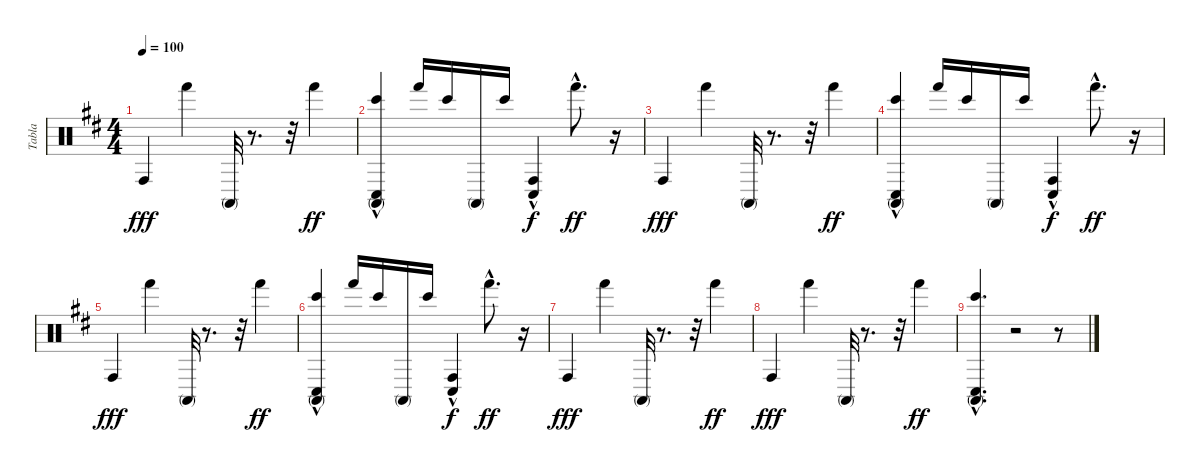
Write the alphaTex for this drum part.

\track ("Tabla" "Tabla") {instrument percussion}
\staff {score}
\articulation defaults
\ts (4 4)
\tempo 100
\clef neutral
\ks d "Conga high (hit)".4{dy fff} "Hand (hit)".4 "Conga high (mute)".32
r.8{d} r.32 "Hand (hit)".4{dy ff} |
("Conga high (mute)" "Bongo High (hit)" "Conga low (hit)"{hac}).4 "Hand (hit)".16 "Bongo High (hit)".16 "Conga high (mute)".16 "Bongo High (hit)".16 ("Conga low (hit)"{hac} "Conga high (hit)"{hac}).4{dy f} "Hand (hit)"{hac}.8{d dy ff} r.16 |
"Conga high (hit)".4{dy fff} "Hand (hit)".4 "Conga high (mute)".32 r.8{d} r.32 "Hand (hit)".4{dy ff} |
("Conga high (mute)" "Bongo High (hit)" "Conga low (hit)"{hac}).4 "Hand (hit)".16 "Bongo High (hit)".16 "Conga high (mute)".16 "Bongo High (hit)".16 ("Conga low (hit)"{hac} "Conga high (hit)"{hac}).4{dy f} "Hand (hit)"{hac}.8{d dy ff} r.16 |
"Conga high (hit)".4{dy fff} "Hand (hit)".4 "Conga high (mute)".32 r.8{d} r.32 "Hand (hit)".4{dy ff} |
("Conga high (mute)" "Bongo High (hit)" "Conga low (hit)"{hac}).4 "Hand (hit)".16 "Bongo High (hit)".16 "Conga high (mute)".16 "Bongo High (hit)".16 ("Conga low (hit)"{hac} "Conga high (hit)"{hac}).4{dy f} "Hand (hit)"{hac}.8{d dy ff} r.16 |
"Conga high (hit)".4{dy fff} "Hand (hit)".4 "Conga high (mute)".32 r.8{d} r.32 "Hand (hit)".4{dy ff} |
"Conga high (hit)".4{dy fff} "Hand (hit)".4 "Conga high (mute)".32 r.8{d} r.32 "Hand (hit)".4{dy ff} |
("Conga high (mute)" "Bongo High (hit)" "Conga low (hit)"{hac}).4{d} r.2 r.8
